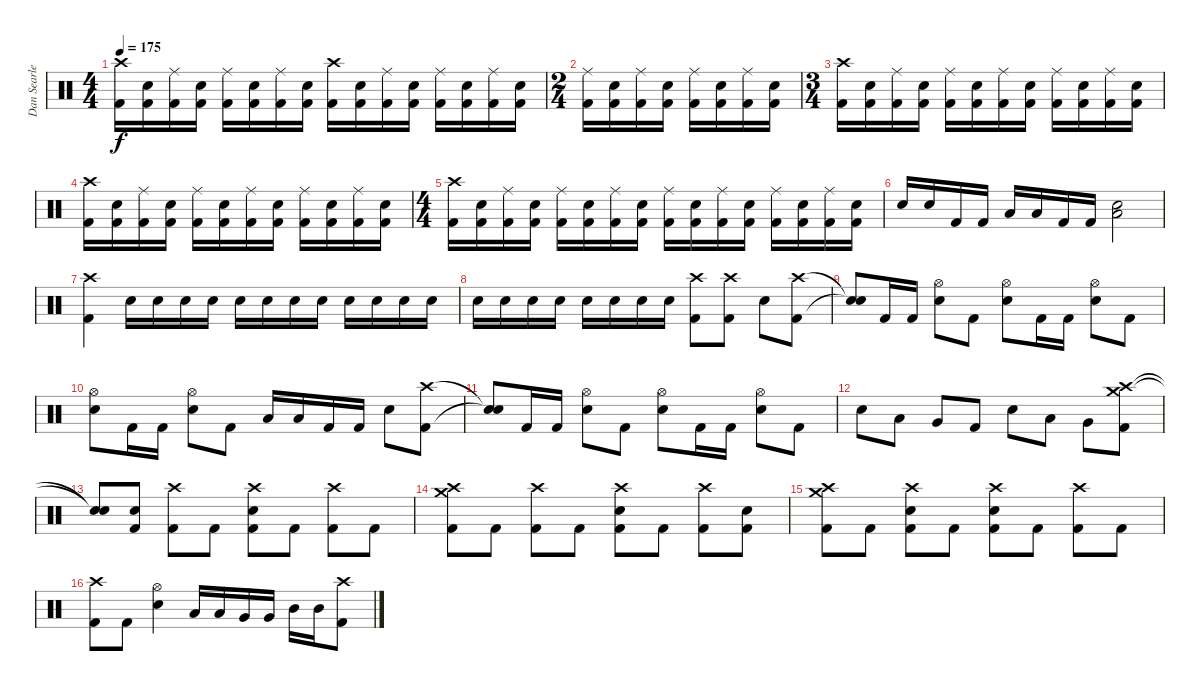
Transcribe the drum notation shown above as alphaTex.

\track ("Dan Searle" "Dan Searle") {instrument percussion}
\staff {score}
\articulation defaults
\ts (4 4)
\tempo 175
\clef neutral
\ks c
("Crash high (hit)" "Kick (hit) 2").16{dy f} ("Snare (hit) 2" "Kick (hit) 2").16 ("Ride (middle)" "Kick (hit) 2").16 ("Snare (hit) 2" "Kick (hit) 2").16 ("Ride (middle)" "Kick (hit) 2").16 ("Snare (hit) 2" "Kick (hit) 2").16 ("Ride (middle)" "Kick (hit) 2").16 ("Snare (hit) 2" "Kick (hit) 2").16 ("Crash high (hit)" "Kick (hit) 2").16 ("Snare (hit) 2" "Kick (hit) 2").16 ("Ride (middle)" "Kick (hit) 2").16 ("Snare (hit) 2" "Kick (hit) 2").16 ("Ride (middle)" "Kick (hit) 2").16 ("Snare (hit) 2" "Kick (hit) 2").16 ("Ride (middle)" "Kick (hit) 2").16 ("Snare (hit) 2" "Kick (hit) 2").16 |
\ts (2 4)
("Ride (middle)" "Kick (hit) 2").16 ("Snare (hit) 2" "Kick (hit) 2").16 ("Ride (middle)" "Kick (hit) 2").16 ("Snare (hit) 2" "Kick (hit) 2").16 ("Ride (middle)" "Kick (hit) 2").16 ("Snare (hit) 2" "Kick (hit) 2").16 ("Ride (middle)" "Kick (hit) 2").16 ("Snare (hit) 2" "Kick (hit) 2").16 |
\ts (3 4)
("Crash high (hit)" "Kick (hit) 2").16 ("Snare (hit) 2" "Kick (hit) 2").16 ("Ride (middle)" "Kick (hit) 2").16 ("Snare (hit) 2" "Kick (hit) 2").16 ("Ride (middle)" "Kick (hit) 2").16 ("Snare (hit) 2" "Kick (hit) 2").16 ("Ride (middle)" "Kick (hit) 2").16 ("Snare (hit) 2" "Kick (hit) 2").16 ("Ride (middle)" "Kick (hit) 2").16 ("Snare (hit) 2" "Kick (hit) 2").16 ("Ride (middle)" "Kick (hit) 2").16 ("Snare (hit) 2" "Kick (hit) 2").16 |
("Crash high (hit)" "Kick (hit) 2").16 ("Snare (hit) 2" "Kick (hit) 2").16 ("Ride (middle)" "Kick (hit) 2").16 ("Snare (hit) 2" "Kick (hit) 2").16 ("Ride (middle)" "Kick (hit) 2").16 ("Snare (hit) 2" "Kick (hit) 2").16 ("Ride (middle)" "Kick (hit) 2").16 ("Snare (hit) 2" "Kick (hit) 2").16 ("Ride (middle)" "Kick (hit) 2").16 ("Snare (hit) 2" "Kick (hit) 2").16 ("Ride (middle)" "Kick (hit) 2").16 ("Snare (hit) 2" "Kick (hit) 2").16 |
\ts (4 4)
("Crash high (hit)" "Kick (hit) 2").16 ("Snare (hit) 2" "Kick (hit) 2").16 ("Ride (middle)" "Kick (hit) 2").16 ("Snare (hit) 2" "Kick (hit) 2").16 ("Ride (middle)" "Kick (hit) 2").16 ("Snare (hit) 2" "Kick (hit) 2").16 ("Ride (middle)" "Kick (hit) 2").16 ("Snare (hit) 2" "Kick (hit) 2").16 ("Ride (middle)" "Kick (hit) 2").16 ("Snare (hit) 2" "Kick (hit) 2").16 ("Ride (middle)" "Kick (hit) 2").16 ("Snare (hit) 2" "Kick (hit) 2").16 ("Ride (middle)" "Kick (hit) 2").16 ("Snare (hit) 2" "Kick (hit) 2").16 ("Ride (middle)" "Kick (hit) 2").16 ("Snare (hit) 2" "Kick (hit) 2").16 |
"Snare (hit) 2".16 "Snare (hit) 2".16 "Kick (hit) 2".16 "Kick (hit) 2".16 "Low Floor Tom (hit)".16 "Low Floor Tom (hit)".16 "Kick (hit) 2".16 "Kick (hit) 2".16 ("Snare (hit) 2" "Low Floor Tom (hit)").2 |
("Crash high (hit)" "Kick (hit) 2").4 "Snare (hit) 2".16 "Snare (hit) 2".16 "Snare (hit) 2".16 "Snare (hit) 2".16 "Snare (hit) 2".16 "Snare (hit) 2".16 "Snare (hit) 2".16 "Snare (hit) 2".16 "Snare (hit) 2".16 "Snare (hit) 2".16 "Snare (hit) 2".16 "Snare (hit) 2".16 |
"Snare (hit) 2".16 "Snare (hit) 2".16 "Snare (hit) 2".16 "Snare (hit) 2".16 "Snare (hit) 2".16 "Snare (hit) 2".16 "Snare (hit) 2".16 "Snare (hit) 2".16 ("Crash high (hit)" "Kick (hit) 2").8 ("Crash high (hit)" "Kick (hit) 2").8 "Snare (hit) 2".8 ("Crash high (hit)" "Kick (hit) 2").8 |
("Snare (hit)"{t} "Snare (hit)"{t}).8 "Kick (hit) 2".16 "Kick (hit) 2".16 ("Hi-Hat (open)" "Snare (hit) 2").8 "Kick (hit) 2".8 ("Hi-Hat (open)" "Snare (hit) 2").8 "Kick (hit) 2".16 "Kick (hit) 2".16 ("Hi-Hat (open)" "Snare (hit) 2").8 "Kick (hit) 2".8 |
("Hi-Hat (open)" "Snare (hit) 2").8 "Kick (hit) 2".16 "Kick (hit) 2".16 ("Hi-Hat (open)" "Snare (hit) 2").8 "Kick (hit) 2".8 "Low Floor Tom (hit)".16 "Low Floor Tom (hit)".16 "Kick (hit) 2".16 "Kick (hit) 2".16 "Snare (hit) 2".8 ("Crash high (hit)" "Kick (hit) 2").8 |
("Snare (hit)"{t} "Snare (hit)"{t}).8 "Kick (hit) 2".16 "Kick (hit) 2".16 ("Hi-Hat (open)" "Snare (hit) 2").8 "Kick (hit) 2".8 ("Hi-Hat (open)" "Snare (hit) 2").8 "Kick (hit) 2".16 "Kick (hit) 2".16 ("Hi-Hat (open)" "Snare (hit) 2").8 "Kick (hit) 2".8 |
"Snare (hit) 2".8 "Low Floor Tom (hit)".8 "Very Low Tom (hit)".8 "Kick (hit) 2".8 "Snare (hit) 2".8 "Low Floor Tom (hit)".8 "Very Low Tom (hit)".8 ("Crash high (hit)" "Crash medium (hit)" "Kick (hit) 2").8 |
("Snare (hit)"{t} "Snare (hit)"{t}).8 ("Snare (hit) 2" "Kick (hit) 2").8 ("Crash high (hit)" "Kick (hit) 2").8 "Kick (hit) 2".8 ("Crash high (hit)" "Snare (hit) 2" "Kick (hit) 2").8 "Kick (hit) 2".8 ("Crash high (hit)" "Kick (hit) 2").8 "Kick (hit) 2".8 |
("Crash high (hit)" "Crash medium (hit)" "Kick (hit) 2").8 "Kick (hit) 2".8 ("Crash high (hit)" "Kick (hit) 2").8 "Kick (hit) 2".8 ("Crash high (hit)" "Snare (hit) 2" "Kick (hit) 2").8 "Kick (hit) 2".8 ("Crash high (hit)" "Kick (hit) 2").8 ("Snare (hit) 2" "Kick (hit) 2").8 |
("Crash high (hit)" "Crash medium (hit)" "Kick (hit) 2").8 "Kick (hit) 2".8 ("Crash high (hit)" "Snare (hit) 2" "Kick (hit) 2").8 "Kick (hit) 2".8 ("Crash high (hit)" "Snare (hit) 2" "Kick (hit) 2").8 "Kick (hit) 2".8 ("Crash high (hit)" "Kick (hit) 2").8 "Kick (hit) 2".8 |
("Crash high (hit)" "Kick (hit) 2").8 "Kick (hit) 2".8 ("Hi-Hat (open)" "Snare (hit) 2").4 "Low Floor Tom (hit)".16 "Low Floor Tom (hit)".16 "Very Low Tom (hit)".16 "Very Low Tom (hit)".16 "Mid Tom (hit)".16 "Mid Tom (hit)".16 ("Crash high (hit)" "Kick (hit) 2").8
